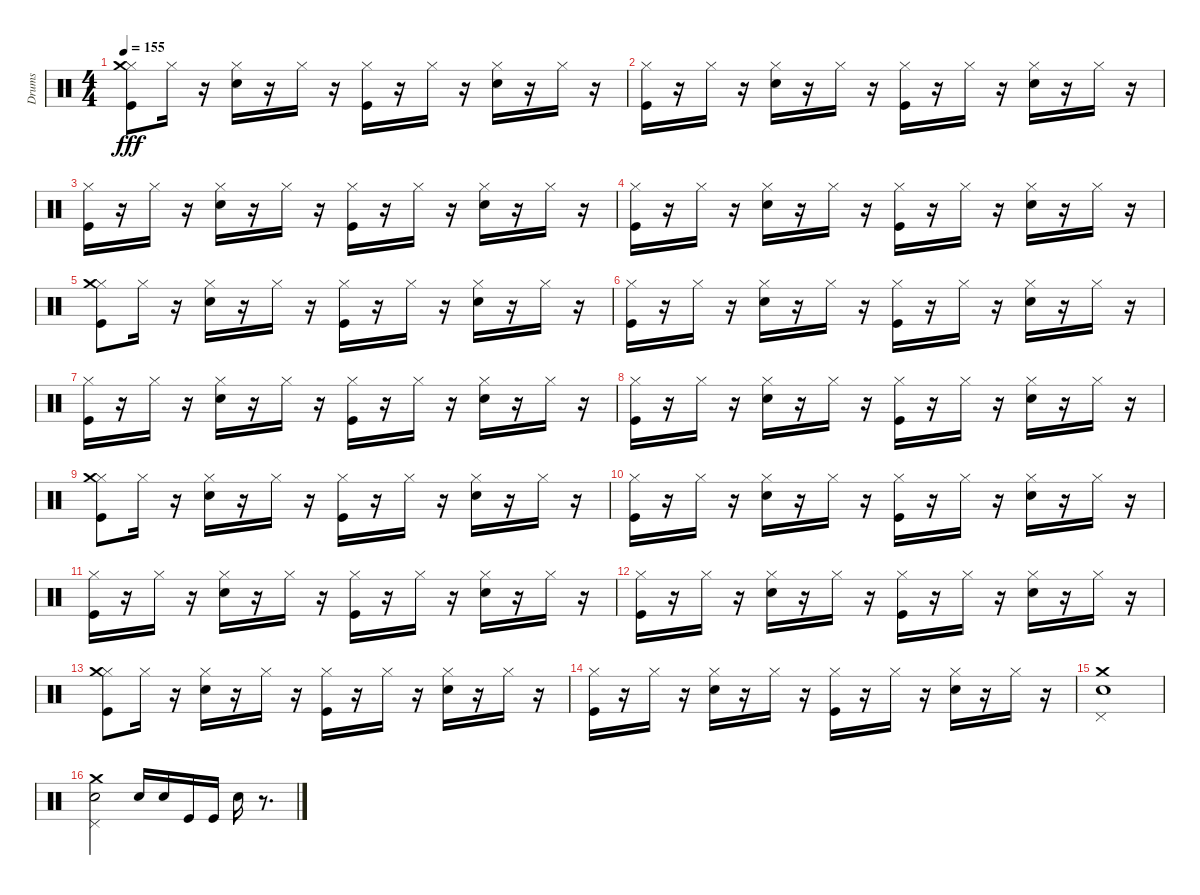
\track ("Drums" "Drums") {instrument percussion}
\staff {score}
\articulation defaults
\ts (4 4)
\tempo 155
\clef neutral
\ks c
("Kick (hit)" "Hi-Hat (closed)" "Crash medium (hit)").8{dy fff} "Hi-Hat (closed)".16 r.16 ("Snare (hit) 2" "Hi-Hat (closed)").16 r.16 "Hi-Hat (closed)".16 r.16 ("Kick (hit)" "Hi-Hat (closed)").16 r.16 "Hi-Hat (closed)".16 r.16 ("Snare (hit) 2" "Hi-Hat (closed)").16 r.16 "Hi-Hat (closed)".16 r.16 |
("Hi-Hat (closed)" "Kick (hit)").16 r.16 "Hi-Hat (closed)".16 r.16 ("Hi-Hat (closed)" "Snare (hit) 2").16 r.16 "Hi-Hat (closed)".16 r.16 ("Hi-Hat (closed)" "Kick (hit)").16 r.16 "Hi-Hat (closed)".16 r.16 ("Hi-Hat (closed)" "Snare (hit) 2").16 r.16 "Hi-Hat (closed)".16 r.16 |
("Kick (hit)" "Hi-Hat (closed)").16 r.16 "Hi-Hat (closed)".16 r.16 ("Snare (hit) 2" "Hi-Hat (closed)").16 r.16 "Hi-Hat (closed)".16 r.16 ("Kick (hit)" "Hi-Hat (closed)").16 r.16 "Hi-Hat (closed)".16 r.16 ("Snare (hit) 2" "Hi-Hat (closed)").16 r.16 "Hi-Hat (closed)".16 r.16 |
("Hi-Hat (closed)" "Kick (hit)").16 r.16 "Hi-Hat (closed)".16 r.16 ("Hi-Hat (closed)" "Snare (hit) 2").16 r.16 "Hi-Hat (closed)".16 r.16 ("Hi-Hat (closed)" "Kick (hit)").16 r.16 "Hi-Hat (closed)".16 r.16 ("Hi-Hat (closed)" "Snare (hit) 2").16 r.16 "Hi-Hat (closed)".16 r.16 |
("Kick (hit)" "Hi-Hat (closed)" "Crash medium (hit)").8 "Hi-Hat (closed)".16 r.16 ("Snare (hit) 2" "Hi-Hat (closed)").16 r.16 "Hi-Hat (closed)".16 r.16 ("Kick (hit)" "Hi-Hat (closed)").16 r.16 "Hi-Hat (closed)".16 r.16 ("Snare (hit) 2" "Hi-Hat (closed)").16 r.16 "Hi-Hat (closed)".16 r.16 |
("Hi-Hat (closed)" "Kick (hit)").16 r.16 "Hi-Hat (closed)".16 r.16 ("Hi-Hat (closed)" "Snare (hit) 2").16 r.16 "Hi-Hat (closed)".16 r.16 ("Hi-Hat (closed)" "Kick (hit)").16 r.16 "Hi-Hat (closed)".16 r.16 ("Hi-Hat (closed)" "Snare (hit) 2").16 r.16 "Hi-Hat (closed)".16 r.16 |
("Kick (hit)" "Hi-Hat (closed)").16 r.16 "Hi-Hat (closed)".16 r.16 ("Snare (hit) 2" "Hi-Hat (closed)").16 r.16 "Hi-Hat (closed)".16 r.16 ("Kick (hit)" "Hi-Hat (closed)").16 r.16 "Hi-Hat (closed)".16 r.16 ("Snare (hit) 2" "Hi-Hat (closed)").16 r.16 "Hi-Hat (closed)".16 r.16 |
("Hi-Hat (closed)" "Kick (hit)").16 r.16 "Hi-Hat (closed)".16 r.16 ("Hi-Hat (closed)" "Snare (hit) 2").16 r.16 "Hi-Hat (closed)".16 r.16 ("Hi-Hat (closed)" "Kick (hit)").16 r.16 "Hi-Hat (closed)".16 r.16 ("Hi-Hat (closed)" "Snare (hit) 2").16 r.16 "Hi-Hat (closed)".16 r.16 |
("Kick (hit)" "Hi-Hat (closed)" "Crash medium (hit)").8 "Hi-Hat (closed)".16 r.16 ("Snare (hit) 2" "Hi-Hat (closed)").16 r.16 "Hi-Hat (closed)".16 r.16 ("Kick (hit)" "Hi-Hat (closed)").16 r.16 "Hi-Hat (closed)".16 r.16 ("Snare (hit) 2" "Hi-Hat (closed)").16 r.16 "Hi-Hat (closed)".16 r.16 |
("Hi-Hat (closed)" "Kick (hit)").16 r.16 "Hi-Hat (closed)".16 r.16 ("Hi-Hat (closed)" "Snare (hit) 2").16 r.16 "Hi-Hat (closed)".16 r.16 ("Hi-Hat (closed)" "Kick (hit)").16 r.16 "Hi-Hat (closed)".16 r.16 ("Hi-Hat (closed)" "Snare (hit) 2").16 r.16 "Hi-Hat (closed)".16 r.16 |
("Kick (hit)" "Hi-Hat (closed)").16 r.16 "Hi-Hat (closed)".16 r.16 ("Snare (hit) 2" "Hi-Hat (closed)").16 r.16 "Hi-Hat (closed)".16 r.16 ("Kick (hit)" "Hi-Hat (closed)").16 r.16 "Hi-Hat (closed)".16 r.16 ("Snare (hit) 2" "Hi-Hat (closed)").16 r.16 "Hi-Hat (closed)".16 r.16 |
("Hi-Hat (closed)" "Kick (hit)").16 r.16 "Hi-Hat (closed)".16 r.16 ("Hi-Hat (closed)" "Snare (hit) 2").16 r.16 "Hi-Hat (closed)".16 r.16 ("Hi-Hat (closed)" "Kick (hit)").16 r.16 "Hi-Hat (closed)".16 r.16 ("Hi-Hat (closed)" "Snare (hit) 2").16 r.16 "Hi-Hat (closed)".16 r.16 |
("Kick (hit)" "Hi-Hat (closed)" "Crash medium (hit)").8 "Hi-Hat (closed)".16 r.16 ("Snare (hit) 2" "Hi-Hat (closed)").16 r.16 "Hi-Hat (closed)".16 r.16 ("Kick (hit)" "Hi-Hat (closed)").16 r.16 "Hi-Hat (closed)".16 r.16 ("Snare (hit) 2" "Hi-Hat (closed)").16 r.16 "Hi-Hat (closed)".16 r.16 |
("Hi-Hat (closed)" "Kick (hit)").16 r.16 "Hi-Hat (closed)".16 r.16 ("Hi-Hat (closed)" "Snare (hit) 2").16 r.16 "Hi-Hat (closed)".16 r.16 ("Hi-Hat (closed)" "Kick (hit)").16 r.16 "Hi-Hat (closed)".16 r.16 ("Hi-Hat (closed)" "Snare (hit) 2").16 r.16 "Hi-Hat (closed)".16 r.16 |
("Snare (hit) 2" "Pedal Hi-Hat (hit)" "Crash medium (hit)").1 |
("Pedal Hi-Hat (hit)" "Snare (hit) 2" "Crash medium (hit)").2 "Snare (hit) 2".16 "Snare (hit) 2".16 "Kick (hit)".16 "Kick (hit)".16 "Snare (hit) 2".16 r.8{d}
